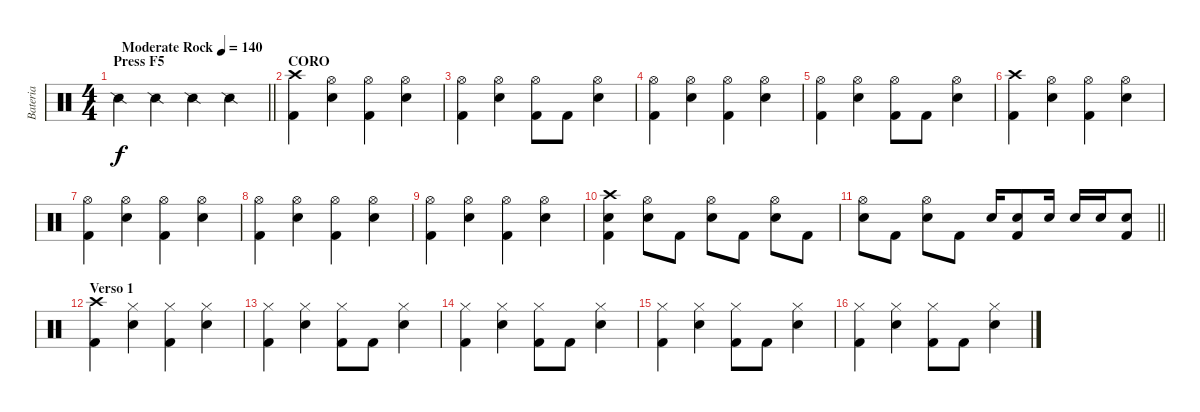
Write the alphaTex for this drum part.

\track ("Bateria" "Bateria") {instrument percussion}
\staff {score}
\articulation defaults
\ts (4 4)
\section ("" "Press F5")
\tempo (140 "Moderate Rock")
\clef neutral
\barLineRight lightlight
\ks c "Snare (side stick) 2".4{dy f} "Snare (side stick) 2".4 "Snare (side stick) 2".4 "Snare (side stick) 2".4
|
\section ("" "CORO")
("Crash high (hit)" "Kick (hit) 2").4 ("Hi-Hat (open)" "Electric Snare (hit)").4 ("Hi-Hat (open)" "Kick (hit) 2").4 ("Hi-Hat (open)" "Electric Snare (hit)").4 |
("Hi-Hat (open)" "Kick (hit) 2").4 ("Hi-Hat (open)" "Electric Snare (hit)").4 ("Hi-Hat (open)" "Kick (hit) 2").8 "Kick (hit) 2".8 ("Hi-Hat (open)" "Electric Snare (hit)").4 |
("Hi-Hat (open)" "Kick (hit) 2").4 ("Hi-Hat (open)" "Electric Snare (hit)").4 ("Hi-Hat (open)" "Kick (hit) 2").4 ("Hi-Hat (open)" "Electric Snare (hit)").4 |
("Hi-Hat (open)" "Kick (hit) 2").4 ("Hi-Hat (open)" "Electric Snare (hit)").4 ("Hi-Hat (open)" "Kick (hit) 2").8 "Kick (hit) 2".8 ("Hi-Hat (open)" "Electric Snare (hit)").4 |
("Crash high (hit)" "Kick (hit) 2").4 ("Hi-Hat (open)" "Electric Snare (hit)").4 ("Hi-Hat (open)" "Kick (hit) 2").4 ("Hi-Hat (open)" "Electric Snare (hit)").4 |
("Hi-Hat (open)" "Kick (hit) 2").4 ("Hi-Hat (open)" "Electric Snare (hit)").4 ("Hi-Hat (open)" "Kick (hit) 2").4 ("Hi-Hat (open)" "Electric Snare (hit)").4 |
("Hi-Hat (open)" "Kick (hit) 2").4 ("Hi-Hat (open)" "Electric Snare (hit)").4 ("Hi-Hat (open)" "Kick (hit) 2").4 ("Hi-Hat (open)" "Electric Snare (hit)").4 |
("Hi-Hat (open)" "Kick (hit) 2").4 ("Hi-Hat (open)" "Electric Snare (hit)").4 ("Hi-Hat (open)" "Kick (hit) 2").4 ("Hi-Hat (open)" "Electric Snare (hit)").4 |
("Crash high (hit)" "Electric Snare (hit)" "Kick (hit) 2").4 ("Hi-Hat (open)" "Electric Snare (hit)").8 "Kick (hit) 2".8 ("Hi-Hat (open)" "Electric Snare (hit)").8 "Kick (hit) 2".8 ("Hi-Hat (open)" "Electric Snare (hit)").8 "Kick (hit) 2".8 |
\barLineRight lightlight
("Hi-Hat (open)" "Electric Snare (hit)").8 "Kick (hit) 2".8 ("Hi-Hat (open)" "Electric Snare (hit)").8 "Kick (hit) 2".8 "Electric Snare (hit)".16 ("Electric Snare (hit)" "Kick (hit) 2").8 "Electric Snare (hit)".16 "Electric Snare (hit)".16 "Electric Snare (hit)".16 ("Electric Snare (hit)" "Kick (hit) 2").8 |
\section ("" "Verso 1")
("Crash high (hit)" "Kick (hit) 2").4 ("Hi-Hat (closed)" "Electric Snare (hit)").4 ("Hi-Hat (closed)" "Kick (hit) 2").4 ("Hi-Hat (closed)" "Electric Snare (hit)").4 |
("Hi-Hat (closed)" "Kick (hit) 2").4 ("Hi-Hat (closed)" "Electric Snare (hit)").4 ("Hi-Hat (closed)" "Kick (hit) 2").8 "Kick (hit) 2".8 ("Hi-Hat (closed)" "Electric Snare (hit)").4 |
("Hi-Hat (closed)" "Kick (hit) 2").4 ("Hi-Hat (closed)" "Electric Snare (hit)").4 ("Hi-Hat (closed)" "Kick (hit) 2").8 "Kick (hit) 2".8 ("Hi-Hat (closed)" "Electric Snare (hit)").4 |
("Hi-Hat (closed)" "Kick (hit) 2").4 ("Hi-Hat (closed)" "Electric Snare (hit)").4 ("Hi-Hat (closed)" "Kick (hit) 2").8 "Kick (hit) 2".8 ("Hi-Hat (closed)" "Electric Snare (hit)").4 |
("Hi-Hat (closed)" "Kick (hit) 2").4 ("Hi-Hat (closed)" "Electric Snare (hit)").4 ("Hi-Hat (closed)" "Kick (hit) 2").8 "Kick (hit) 2".8 ("Hi-Hat (closed)" "Electric Snare (hit)").4
